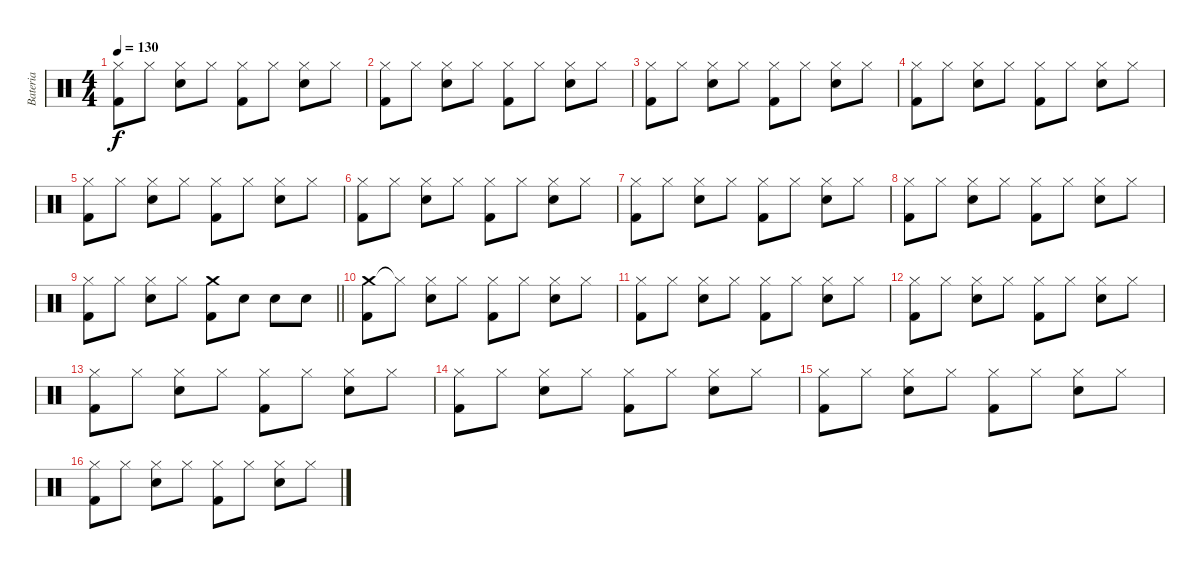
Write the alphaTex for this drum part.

\track ("Bateria" "Bateria") {instrument percussion}
\staff {score}
\articulation defaults
\ts (4 4)
\tempo 130
\clef neutral
\ks c
("Hi-Hat (closed)" "Kick (hit) 2").8{dy f} "Hi-Hat (closed)".8 ("Hi-Hat (closed)" "Snare (hit) 2").8 "Hi-Hat (closed)".8 ("Hi-Hat (closed)" "Kick (hit) 2").8 "Hi-Hat (closed)".8 ("Hi-Hat (closed)" "Snare (hit) 2").8 "Hi-Hat (closed)".8 |
("Hi-Hat (closed)" "Kick (hit) 2").8 "Hi-Hat (closed)".8 ("Hi-Hat (closed)" "Snare (hit) 2").8 "Hi-Hat (closed)".8 ("Hi-Hat (closed)" "Kick (hit) 2").8 "Hi-Hat (closed)".8 ("Hi-Hat (closed)" "Snare (hit) 2").8 "Hi-Hat (closed)".8 |
("Hi-Hat (closed)" "Kick (hit) 2").8 "Hi-Hat (closed)".8 ("Hi-Hat (closed)" "Snare (hit) 2").8 "Hi-Hat (closed)".8 ("Hi-Hat (closed)" "Kick (hit) 2").8 "Hi-Hat (closed)".8 ("Hi-Hat (closed)" "Snare (hit) 2").8 "Hi-Hat (closed)".8 |
("Hi-Hat (closed)" "Kick (hit) 2").8 "Hi-Hat (closed)".8 ("Hi-Hat (closed)" "Snare (hit) 2").8 "Hi-Hat (closed)".8 ("Hi-Hat (closed)" "Kick (hit) 2").8 "Hi-Hat (closed)".8 ("Hi-Hat (closed)" "Snare (hit) 2").8 "Hi-Hat (closed)".8 |
("Hi-Hat (closed)" "Kick (hit) 2").8 "Hi-Hat (closed)".8 ("Hi-Hat (closed)" "Snare (hit) 2").8 "Hi-Hat (closed)".8 ("Hi-Hat (closed)" "Kick (hit) 2").8 "Hi-Hat (closed)".8 ("Hi-Hat (closed)" "Snare (hit) 2").8 "Hi-Hat (closed)".8 |
("Hi-Hat (closed)" "Kick (hit) 2").8 "Hi-Hat (closed)".8 ("Hi-Hat (closed)" "Snare (hit) 2").8 "Hi-Hat (closed)".8 ("Hi-Hat (closed)" "Kick (hit) 2").8 "Hi-Hat (closed)".8 ("Hi-Hat (closed)" "Snare (hit) 2").8 "Hi-Hat (closed)".8 |
("Hi-Hat (closed)" "Kick (hit) 2").8 "Hi-Hat (closed)".8 ("Hi-Hat (closed)" "Snare (hit) 2").8 "Hi-Hat (closed)".8 ("Hi-Hat (closed)" "Kick (hit) 2").8 "Hi-Hat (closed)".8 ("Hi-Hat (closed)" "Snare (hit) 2").8 "Hi-Hat (closed)".8 |
("Hi-Hat (closed)" "Kick (hit) 2").8 "Hi-Hat (closed)".8 ("Hi-Hat (closed)" "Snare (hit) 2").8 "Hi-Hat (closed)".8 ("Hi-Hat (closed)" "Kick (hit) 2").8 "Hi-Hat (closed)".8 ("Hi-Hat (closed)" "Snare (hit) 2").8 "Hi-Hat (closed)".8 |
\barLineRight lightlight
("Hi-Hat (closed)" "Kick (hit) 2").8 "Hi-Hat (closed)".8 ("Hi-Hat (closed)" "Snare (hit) 2").8 "Hi-Hat (closed)".8 ("Crash medium (hit)" "Kick (hit) 2").8 "Snare (hit) 2".8 "Snare (hit) 2".8 "Snare (hit) 2".8 |
("Crash medium (hit)" "Kick (hit) 2").8 "Hi-Hat (closed)"{t}.8 ("Hi-Hat (closed)" "Snare (hit) 2").8 "Hi-Hat (closed)".8 ("Hi-Hat (closed)" "Kick (hit) 2").8 "Hi-Hat (closed)".8 ("Hi-Hat (closed)" "Snare (hit) 2").8 "Hi-Hat (closed)".8 |
("Hi-Hat (closed)" "Kick (hit) 2").8 "Hi-Hat (closed)".8 ("Hi-Hat (closed)" "Snare (hit) 2").8 "Hi-Hat (closed)".8 ("Hi-Hat (closed)" "Kick (hit) 2").8 "Hi-Hat (closed)".8 ("Hi-Hat (closed)" "Snare (hit) 2").8 "Hi-Hat (closed)".8 |
("Hi-Hat (closed)" "Kick (hit) 2").8 "Hi-Hat (closed)".8 ("Hi-Hat (closed)" "Snare (hit) 2").8 "Hi-Hat (closed)".8 ("Hi-Hat (closed)" "Kick (hit) 2").8 "Hi-Hat (closed)".8 ("Hi-Hat (closed)" "Snare (hit) 2").8 "Hi-Hat (closed)".8 |
("Hi-Hat (closed)" "Kick (hit) 2").8 "Hi-Hat (closed)".8 ("Hi-Hat (closed)" "Snare (hit) 2").8 "Hi-Hat (closed)".8 ("Hi-Hat (closed)" "Kick (hit) 2").8 "Hi-Hat (closed)".8 ("Hi-Hat (closed)" "Snare (hit) 2").8 "Hi-Hat (closed)".8 |
("Hi-Hat (closed)" "Kick (hit) 2").8 "Hi-Hat (closed)".8 ("Hi-Hat (closed)" "Snare (hit) 2").8 "Hi-Hat (closed)".8 ("Hi-Hat (closed)" "Kick (hit) 2").8 "Hi-Hat (closed)".8 ("Hi-Hat (closed)" "Snare (hit) 2").8 "Hi-Hat (closed)".8 |
("Hi-Hat (closed)" "Kick (hit) 2").8 "Hi-Hat (closed)".8 ("Hi-Hat (closed)" "Snare (hit) 2").8 "Hi-Hat (closed)".8 ("Hi-Hat (closed)" "Kick (hit) 2").8 "Hi-Hat (closed)".8 ("Hi-Hat (closed)" "Snare (hit) 2").8 "Hi-Hat (closed)".8 |
("Hi-Hat (closed)" "Kick (hit) 2").8 "Hi-Hat (closed)".8 ("Hi-Hat (closed)" "Snare (hit) 2").8 "Hi-Hat (closed)".8 ("Hi-Hat (closed)" "Kick (hit) 2").8 "Hi-Hat (closed)".8 ("Hi-Hat (closed)" "Snare (hit) 2").8 "Hi-Hat (closed)".8
